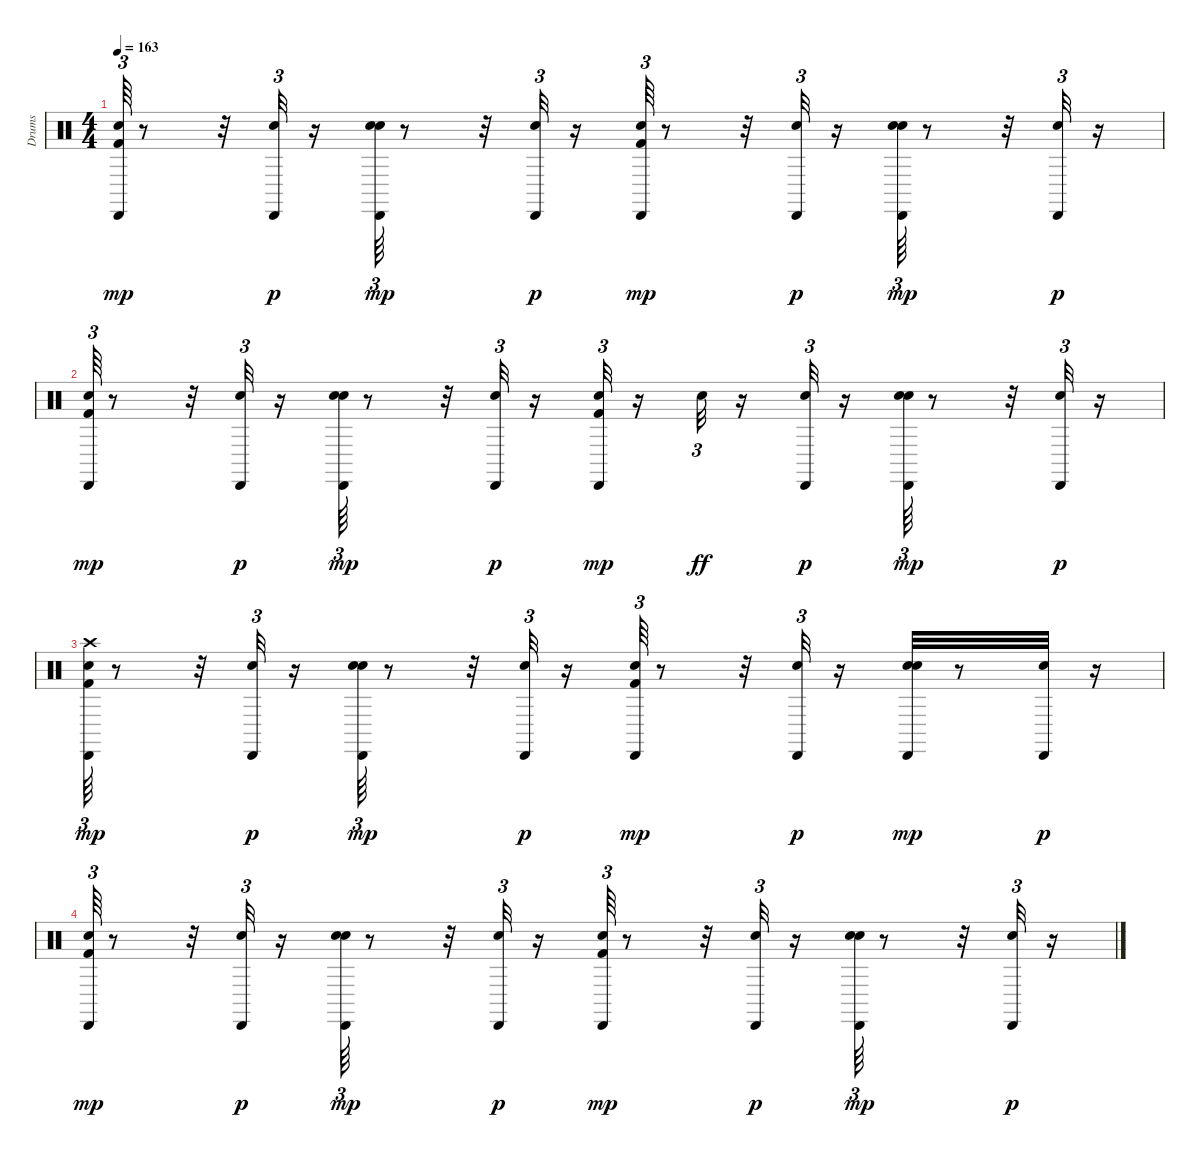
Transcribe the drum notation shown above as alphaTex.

\track ("Drums               " "Drums     ") {instrument percussion}
\staff {score}
\articulation defaults
\ts (4 4)
\tempo 163
\clef neutral
\ks c
("Kick (hit) 2" "Snare (hit) 2" "Cabasa (hit)").64{tu (3 2) dy mp} r.8 r.32 ("Snare (hit) 2" "Cabasa (hit)").32{tu (3 2) dy p} r.16 ("Snare (hit) 2" "Hand Clap (hit)" "Cabasa (hit)").64{tu (3 2) dy mp} r.8 r.32 ("Snare (hit) 2" "Cabasa (hit)").32{tu (3 2) dy p} r.16 ("Kick (hit) 2" "Snare (hit) 2" "Cabasa (hit)").64{tu (3 2) dy mp} r.8 r.32 ("Snare (hit) 2" "Cabasa (hit)").32{tu (3 2) dy p} r.16 ("Snare (hit) 2" "Hand Clap (hit)" "Cabasa (hit)").64{tu (3 2) dy mp} r.8 r.32 ("Snare (hit) 2" "Cabasa (hit)").32{tu (3 2) dy p} r.16 |
("Kick (hit) 2" "Snare (hit) 2" "Cabasa (hit)").64{tu (3 2) dy mp} r.8 r.32 ("Snare (hit) 2" "Cabasa (hit)").32{tu (3 2) dy p} r.16 ("Snare (hit) 2" "Hand Clap (hit)" "Cabasa (hit)").64{tu (3 2) dy mp} r.8 r.32 ("Snare (hit) 2" "Cabasa (hit)").32{tu (3 2) dy p} r.16 ("Kick (hit) 2" "Snare (hit) 2" "Cabasa (hit)").32{tu (3 2) dy mp} r.16 "Snare (hit) 2".32{tu (3 2) dy ff} r.16 ("Snare (hit) 2" "Cabasa (hit)").32{tu (3 2) dy p} r.16 ("Snare (hit) 2" "Hand Clap (hit)" "Cabasa (hit)").64{tu (3 2) dy mp} r.8 r.32 ("Snare (hit) 2" "Cabasa (hit)").32{tu (3 2) dy p} r.16 |
("Kick (hit) 2" "Snare (hit) 2" "Crash high (hit)" "Cabasa (hit)").64{tu (3 2) dy mp} r.8 r.32 ("Snare (hit) 2" "Cabasa (hit)").32{tu (3 2) dy p} r.16 ("Snare (hit) 2" "Hand Clap (hit)" "Cabasa (hit)").64{tu (3 2) dy mp} r.8 r.32 ("Snare (hit) 2" "Cabasa (hit)").32{tu (3 2) dy p} r.16 ("Kick (hit) 2" "Snare (hit) 2" "Cabasa (hit)").64{tu (3 2) dy mp} r.8 r.32 ("Snare (hit) 2" "Cabasa (hit)").32{tu (3 2) dy p} r.16 ("Snare (hit) 2" "Hand Clap (hit)" "Cabasa (hit)").32{dy mp} r.8 ("Snare (hit) 2" "Cabasa (hit)").32{dy p} r.16 |
("Kick (hit) 2" "Snare (hit) 2" "Cabasa (hit)").64{tu (3 2) dy mp} r.8 r.32 ("Snare (hit) 2" "Cabasa (hit)").32{tu (3 2) dy p} r.16 ("Snare (hit) 2" "Hand Clap (hit)" "Cabasa (hit)").64{tu (3 2) dy mp} r.8 r.32 ("Snare (hit) 2" "Cabasa (hit)").32{tu (3 2) dy p} r.16 ("Kick (hit) 2" "Snare (hit) 2" "Cabasa (hit)").64{tu (3 2) dy mp} r.8 r.32 ("Snare (hit) 2" "Cabasa (hit)").32{tu (3 2) dy p} r.16 ("Snare (hit) 2" "Hand Clap (hit)" "Cabasa (hit)").64{tu (3 2) dy mp} r.8 r.32 ("Snare (hit) 2" "Cabasa (hit)").32{tu (3 2) dy p} r.16
